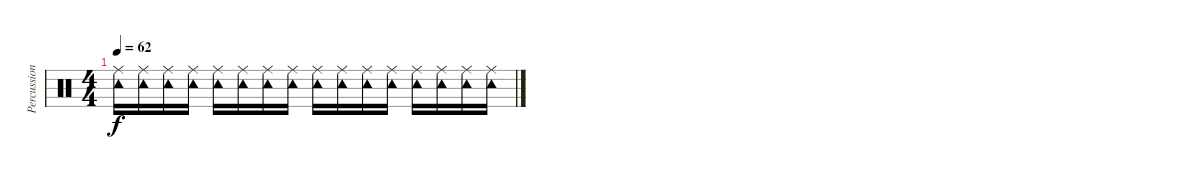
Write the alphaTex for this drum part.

\track ("Percussion" "Percussion") {instrument percussion}
\staff {score}
\articulation defaults
\ts (4 4)
\tempo 62
\clef neutral
\ks c
("Ride (middle)" "Tambourine (hit)").16{dy f} ("Ride (middle)" "Tambourine (hit)").16 ("Ride (middle)" "Tambourine (hit)").16 ("Ride (middle)" "Tambourine (hit)").16 ("Ride (middle)" "Tambourine (hit)").16 ("Ride (middle)" "Tambourine (hit)").16 ("Ride (middle)" "Tambourine (hit)").16 ("Ride (middle)" "Tambourine (hit)").16 ("Ride (middle)" "Tambourine (hit)").16 ("Ride (middle)" "Tambourine (hit)").16 ("Ride (middle)" "Tambourine (hit)").16 ("Ride (middle)" "Tambourine (hit)").16 ("Ride (middle)" "Tambourine (hit)").16 ("Ride (middle)" "Tambourine (hit)").16 ("Ride (middle)" "Tambourine (hit)").16 ("Tambourine (hit)" "Ride (middle)").16
